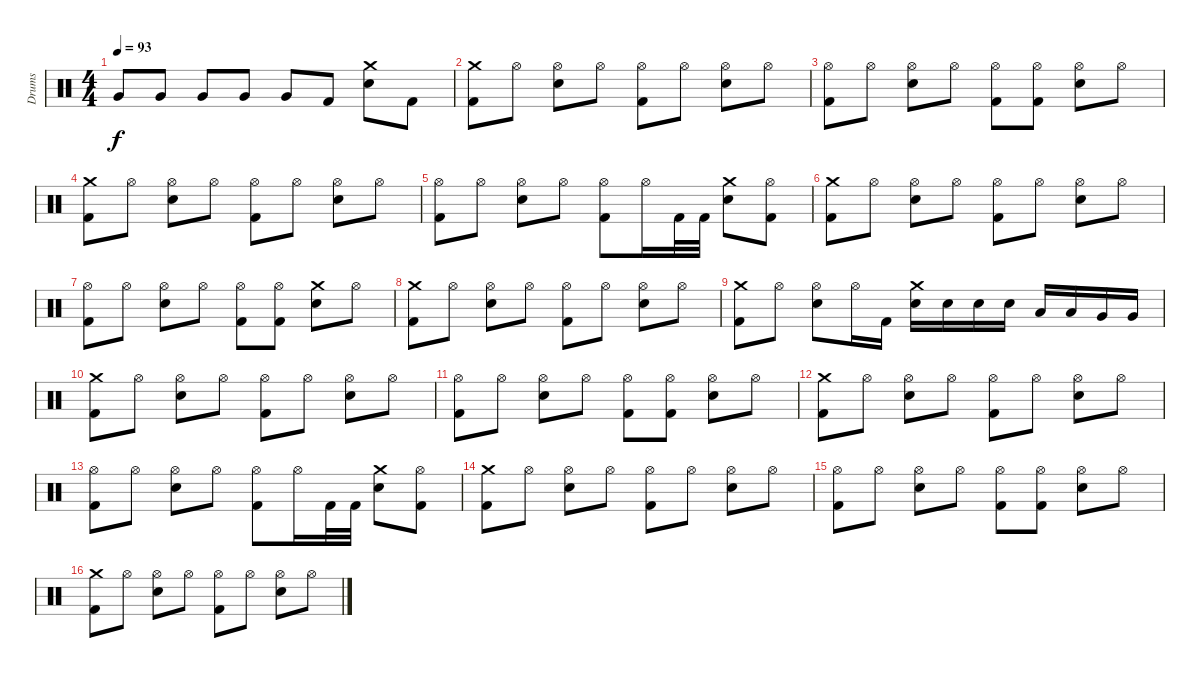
\track ("Drums" "Drums") {instrument percussion}
\staff {score}
\articulation defaults
\ts (4 4)
\tempo 93
\clef neutral
\ks c "Very Low Tom (hit)".8{dy f} "Very Low Tom (hit)".8 "Very Low Tom (hit)".8 "Very Low Tom (hit)".8 "Very Low Tom (hit)".8 "Kick (hit) 2".8
("Crash medium (hit)" "Electric Snare (hit)").8 "Kick (hit) 2".8 |
("Crash medium (hit)" "Kick (hit) 2").8 "Hi-Hat (open)".8 ("Hi-Hat (open)" "Electric Snare (hit)").8 "Hi-Hat (open)".8 ("Hi-Hat (open)" "Kick (hit) 2").8 "Hi-Hat (open)".8 ("Hi-Hat (open)" "Electric Snare (hit)").8 "Hi-Hat (open)".8 |
("Hi-Hat (open)" "Kick (hit) 2").8 "Hi-Hat (open)".8 ("Hi-Hat (open)" "Electric Snare (hit)").8 "Hi-Hat (open)".8 ("Hi-Hat (open)" "Kick (hit) 2").8 ("Hi-Hat (open)" "Kick (hit) 2").8 ("Hi-Hat (open)" "Electric Snare (hit)").8 "Hi-Hat (open)".8 |
("Crash medium (hit)" "Kick (hit) 2").8 "Hi-Hat (open)".8 ("Hi-Hat (open)" "Electric Snare (hit)").8 "Hi-Hat (open)".8 ("Hi-Hat (open)" "Kick (hit) 2").8 "Hi-Hat (open)".8 ("Hi-Hat (open)" "Electric Snare (hit)").8 "Hi-Hat (open)".8 |
("Hi-Hat (open)" "Kick (hit) 2").8 "Hi-Hat (open)".8 ("Hi-Hat (open)" "Electric Snare (hit)").8 "Hi-Hat (open)".8 ("Hi-Hat (open)" "Kick (hit) 2").8 "Hi-Hat (open)".16 "Kick (hit) 2".32 "Kick (hit) 2".32 ("Crash medium (hit)" "Electric Snare (hit)").8 ("Hi-Hat (open)" "Kick (hit) 2").8 |
("Crash medium (hit)" "Kick (hit) 2").8 "Hi-Hat (open)".8 ("Hi-Hat (open)" "Electric Snare (hit)").8 "Hi-Hat (open)".8 ("Hi-Hat (open)" "Kick (hit) 2").8 "Hi-Hat (open)".8 ("Hi-Hat (open)" "Electric Snare (hit)").8 "Hi-Hat (open)".8 |
("Hi-Hat (open)" "Kick (hit) 2").8 "Hi-Hat (open)".8 ("Hi-Hat (open)" "Electric Snare (hit)").8 "Hi-Hat (open)".8 ("Hi-Hat (open)" "Kick (hit) 2").8 ("Hi-Hat (open)" "Kick (hit) 2").8 ("Crash medium (hit)" "Electric Snare (hit)").8 "Hi-Hat (open)".8 |
("Crash medium (hit)" "Kick (hit) 2").8 "Hi-Hat (open)".8 ("Hi-Hat (open)" "Electric Snare (hit)").8 "Hi-Hat (open)".8 ("Hi-Hat (open)" "Kick (hit) 2").8 "Hi-Hat (open)".8 ("Hi-Hat (open)" "Electric Snare (hit)").8 "Hi-Hat (open)".8 |
("Crash medium (hit)" "Kick (hit) 2").8 "Hi-Hat (open)".8 ("Hi-Hat (open)" "Electric Snare (hit)").8 "Hi-Hat (open)".16 "Kick (hit) 2".16 ("Crash medium (hit)" "Electric Snare (hit)").16 "Electric Snare (hit)".16 "Electric Snare (hit)".16 "Electric Snare (hit)".16 "Low Tom (hit)".16 "Low Tom (hit)".16 "Very Low Tom (hit)".16 "Very Low Tom (hit)".16 |
("Crash medium (hit)" "Kick (hit) 2").8 "Hi-Hat (open)".8 ("Hi-Hat (open)" "Electric Snare (hit)").8 "Hi-Hat (open)".8 ("Hi-Hat (open)" "Kick (hit) 2").8 "Hi-Hat (open)".8 ("Hi-Hat (open)" "Electric Snare (hit)").8 "Hi-Hat (open)".8 |
("Hi-Hat (open)" "Kick (hit) 2").8 "Hi-Hat (open)".8 ("Hi-Hat (open)" "Electric Snare (hit)").8 "Hi-Hat (open)".8 ("Hi-Hat (open)" "Kick (hit) 2").8 ("Hi-Hat (open)" "Kick (hit) 2").8 ("Hi-Hat (open)" "Electric Snare (hit)").8 "Hi-Hat (open)".8 |
("Crash medium (hit)" "Kick (hit) 2").8 "Hi-Hat (open)".8 ("Hi-Hat (open)" "Electric Snare (hit)").8 "Hi-Hat (open)".8 ("Hi-Hat (open)" "Kick (hit) 2").8 "Hi-Hat (open)".8 ("Hi-Hat (open)" "Electric Snare (hit)").8 "Hi-Hat (open)".8 |
("Hi-Hat (open)" "Kick (hit) 2").8 "Hi-Hat (open)".8 ("Hi-Hat (open)" "Electric Snare (hit)").8 "Hi-Hat (open)".8 ("Hi-Hat (open)" "Kick (hit) 2").8 "Hi-Hat (open)".16 "Kick (hit) 2".32 "Kick (hit) 2".32 ("Crash medium (hit)" "Electric Snare (hit)").8 ("Hi-Hat (open)" "Kick (hit) 2").8 |
("Crash medium (hit)" "Kick (hit) 2").8 "Hi-Hat (open)".8 ("Hi-Hat (open)" "Electric Snare (hit)").8 "Hi-Hat (open)".8 ("Hi-Hat (open)" "Kick (hit) 2").8 "Hi-Hat (open)".8 ("Hi-Hat (open)" "Electric Snare (hit)").8 "Hi-Hat (open)".8 |
("Hi-Hat (open)" "Kick (hit) 2").8 "Hi-Hat (open)".8 ("Hi-Hat (open)" "Electric Snare (hit)").8 "Hi-Hat (open)".8 ("Hi-Hat (open)" "Kick (hit) 2").8 ("Hi-Hat (open)" "Kick (hit) 2").8 ("Hi-Hat (open)" "Electric Snare (hit)").8 "Hi-Hat (open)".8 |
("Crash medium (hit)" "Kick (hit) 2").8 "Hi-Hat (open)".8 ("Hi-Hat (open)" "Electric Snare (hit)").8 "Hi-Hat (open)".8 ("Hi-Hat (open)" "Kick (hit) 2").8 "Hi-Hat (open)".8 ("Hi-Hat (open)" "Electric Snare (hit)").8 "Hi-Hat (open)".8
